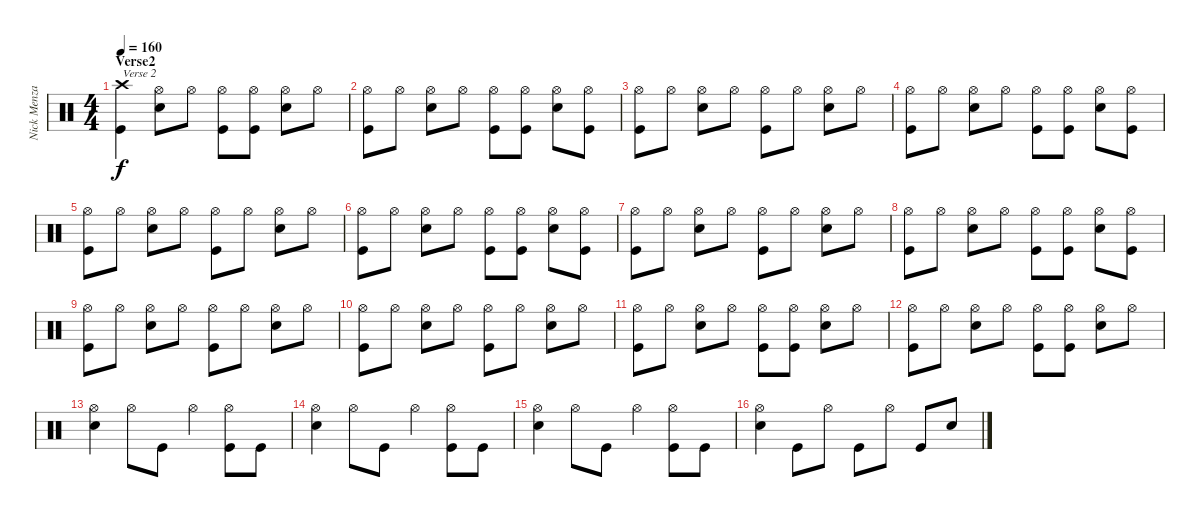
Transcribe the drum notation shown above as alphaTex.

\track ("Nick Menza" "Nick Menza") {instrument percussion}
\staff {score}
\articulation defaults
\ts (4 4)
\section ("" "Verse2")
\tempo 160
\clef neutral
\ks c
("Crash high (hit)" "Kick (hit)").4{txt "Verse 2" dy f} ("Hi-Hat (open)" "Snare (hit) 2").8 "Hi-Hat (open)".8 ("Hi-Hat (open)" "Kick (hit)").8 ("Hi-Hat (open)" "Kick (hit)").8 ("Hi-Hat (open)" "Snare (hit) 2").8 "Hi-Hat (open)".8 |
("Hi-Hat (open)" "Kick (hit)").8 "Hi-Hat (open)".8 ("Hi-Hat (open)" "Snare (hit) 2").8 "Hi-Hat (open)".8 ("Hi-Hat (open)" "Kick (hit)").8 ("Hi-Hat (open)" "Kick (hit)").8 ("Hi-Hat (open)" "Snare (hit) 2").8 ("Hi-Hat (open)" "Kick (hit)").8 |
("Hi-Hat (open)" "Kick (hit)").8 "Hi-Hat (open)".8 ("Hi-Hat (open)" "Snare (hit) 2").8 "Hi-Hat (open)".8 ("Hi-Hat (open)" "Kick (hit)").8 "Hi-Hat (open)".8 ("Hi-Hat (open)" "Snare (hit) 2").8 "Hi-Hat (open)".8 |
("Hi-Hat (open)" "Kick (hit)").8 "Hi-Hat (open)".8 ("Hi-Hat (open)" "Snare (hit) 2").8 "Hi-Hat (open)".8 ("Hi-Hat (open)" "Kick (hit)").8 ("Hi-Hat (open)" "Kick (hit)").8 ("Hi-Hat (open)" "Snare (hit) 2").8 ("Hi-Hat (open)" "Kick (hit)").8 |
("Hi-Hat (open)" "Kick (hit)").8 "Hi-Hat (open)".8 ("Hi-Hat (open)" "Snare (hit) 2").8 "Hi-Hat (open)".8 ("Hi-Hat (open)" "Kick (hit)").8 "Hi-Hat (open)".8 ("Hi-Hat (open)" "Snare (hit) 2").8 "Hi-Hat (open)".8 |
("Hi-Hat (open)" "Kick (hit)").8 "Hi-Hat (open)".8 ("Hi-Hat (open)" "Snare (hit) 2").8 "Hi-Hat (open)".8 ("Hi-Hat (open)" "Kick (hit)").8 ("Hi-Hat (open)" "Kick (hit)").8 ("Hi-Hat (open)" "Snare (hit) 2").8 ("Hi-Hat (open)" "Kick (hit)").8 |
("Hi-Hat (open)" "Kick (hit)").8 "Hi-Hat (open)".8 ("Hi-Hat (open)" "Snare (hit) 2").8 "Hi-Hat (open)".8 ("Hi-Hat (open)" "Kick (hit)").8 "Hi-Hat (open)".8 ("Hi-Hat (open)" "Snare (hit) 2").8 "Hi-Hat (open)".8 |
("Hi-Hat (open)" "Kick (hit)").8 "Hi-Hat (open)".8 ("Hi-Hat (open)" "Snare (hit) 2").8 "Hi-Hat (open)".8 ("Hi-Hat (open)" "Kick (hit)").8 ("Hi-Hat (open)" "Kick (hit)").8 ("Hi-Hat (open)" "Snare (hit) 2").8 ("Hi-Hat (open)" "Kick (hit)").8 |
("Hi-Hat (open)" "Kick (hit)").8 "Hi-Hat (open)".8 ("Hi-Hat (open)" "Snare (hit) 2").8 "Hi-Hat (open)".8 ("Hi-Hat (open)" "Kick (hit)").8 "Hi-Hat (open)".8 ("Hi-Hat (open)" "Snare (hit) 2").8 "Hi-Hat (open)".8 |
("Hi-Hat (open)" "Kick (hit)").8 "Hi-Hat (open)".8 ("Hi-Hat (open)" "Snare (hit) 2").8 "Hi-Hat (open)".8 ("Hi-Hat (open)" "Kick (hit)").8 "Hi-Hat (open)".8 ("Hi-Hat (open)" "Snare (hit) 2").8 "Hi-Hat (open)".8 |
("Hi-Hat (open)" "Kick (hit)").8 "Hi-Hat (open)".8 ("Hi-Hat (open)" "Snare (hit) 2").8 "Hi-Hat (open)".8 ("Hi-Hat (open)" "Kick (hit)").8 ("Hi-Hat (open)" "Kick (hit)").8 ("Hi-Hat (open)" "Snare (hit) 2").8 "Hi-Hat (open)".8 |
("Hi-Hat (open)" "Kick (hit)").8 "Hi-Hat (open)".8 ("Hi-Hat (open)" "Snare (hit) 2").8 "Hi-Hat (open)".8 ("Hi-Hat (open)" "Kick (hit)").8 ("Hi-Hat (open)" "Kick (hit)").8 ("Hi-Hat (open)" "Snare (hit) 2").8 "Hi-Hat (open)".8 |
("Hi-Hat (open)" "Snare (hit) 2").4 "Hi-Hat (open)".8 "Kick (hit)".8 "Hi-Hat (open)".4 ("Hi-Hat (open)" "Kick (hit)").8 "Kick (hit)".8 |
("Hi-Hat (open)" "Snare (hit) 2").4 "Hi-Hat (open)".8 "Kick (hit)".8 "Hi-Hat (open)".4 ("Hi-Hat (open)" "Kick (hit)").8 "Kick (hit)".8 |
("Hi-Hat (open)" "Snare (hit) 2").4 "Hi-Hat (open)".8 "Kick (hit)".8 "Hi-Hat (open)".4 ("Hi-Hat (open)" "Kick (hit)").8 "Kick (hit)".8 |
("Hi-Hat (open)" "Snare (hit) 2").4 "Kick (hit)".8 "Hi-Hat (open)".8 "Kick (hit)".8 "Hi-Hat (open)".8 "Kick (hit)".8 "Snare (hit) 2".8
